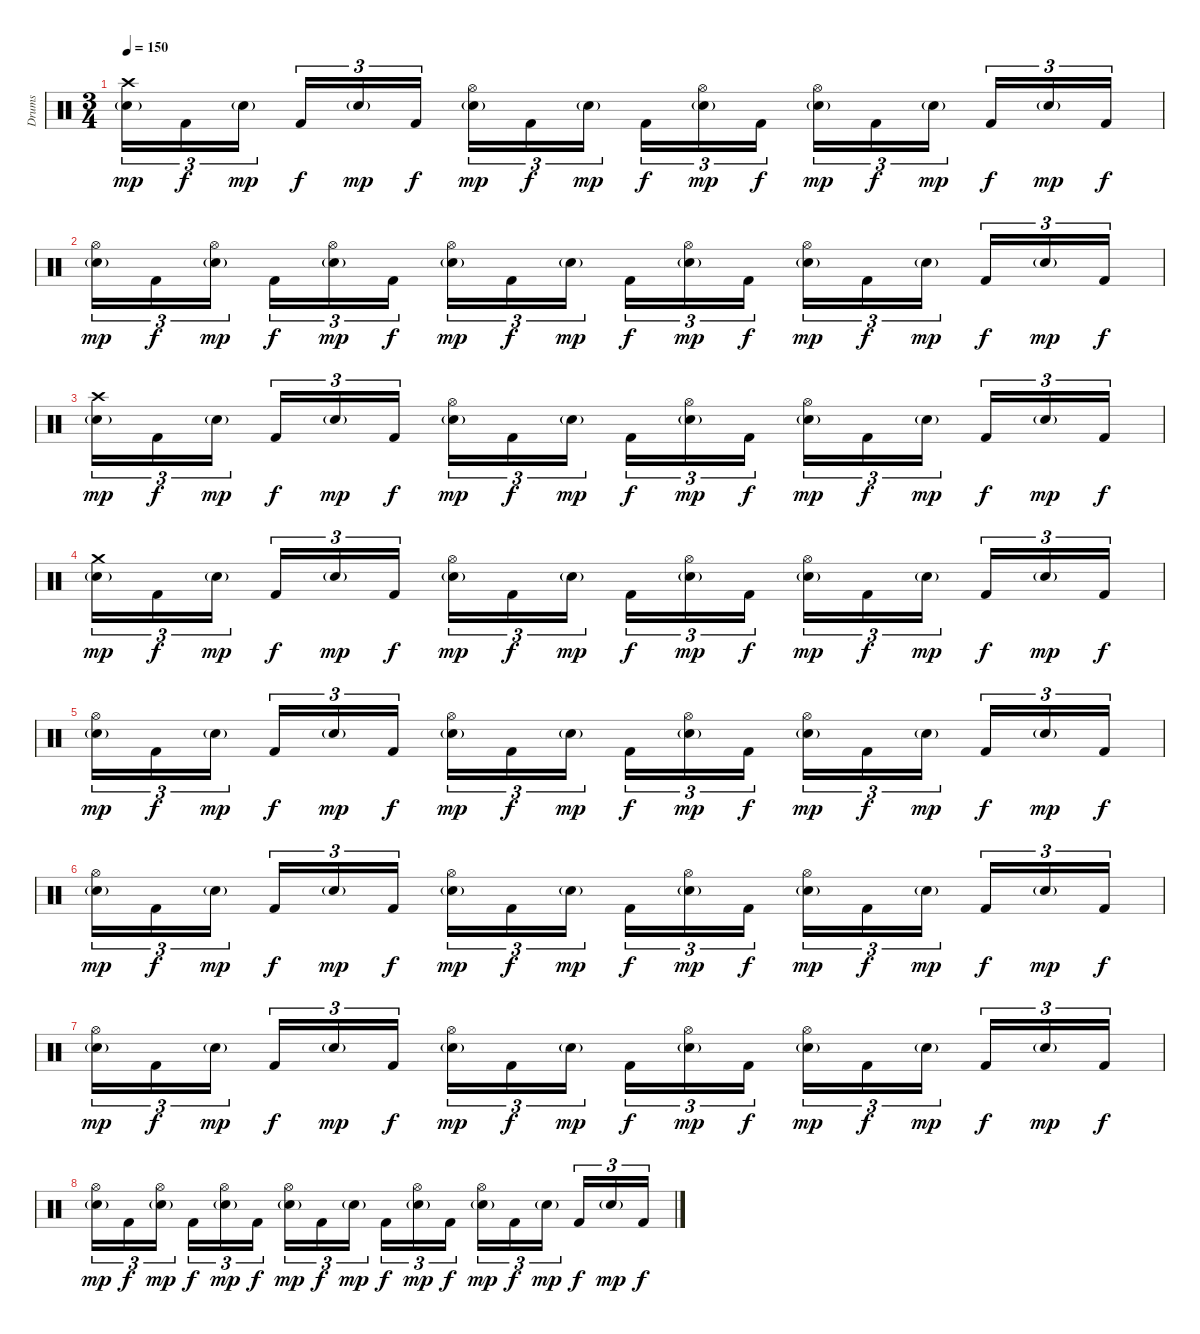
\track ("Drums" "Drums") {instrument percussion}
\staff {score}
\articulation defaults
\ts (3 4)
\tempo 150
\clef neutral
\ks c
("Electric Snare (hit)"{g} "Crash high (hit)").16{tu (3 2) dy mp} "Kick (hit) 2".16{tu (3 2) dy f} "Electric Snare (hit)"{g}.16{tu (3 2) dy mp beam splitsecondary} "Kick (hit) 2".16{tu (3 2) dy f} "Electric Snare (hit)"{g}.16{tu (3 2) dy mp} "Kick (hit) 2".16{tu (3 2) dy f} ("Electric Snare (hit)"{g} "Hi-Hat (open)").16{tu (3 2) dy mp} "Kick (hit) 2".16{tu (3 2) dy f} "Electric Snare (hit)"{g}.16{tu (3 2) dy mp beam splitsecondary} "Kick (hit) 2".16{tu (3 2) dy f} ("Electric Snare (hit)"{g} "Hi-Hat (open)").16{tu (3 2) dy mp} "Kick (hit) 2".16{tu (3 2) dy f} ("Electric Snare (hit)"{g} "Hi-Hat (open)").16{tu (3 2) dy mp} "Kick (hit) 2".16{tu (3 2) dy f} "Electric Snare (hit)"{g}.16{tu (3 2) dy mp beam splitsecondary} "Kick (hit) 2".16{tu (3 2) dy f} "Electric Snare (hit)"{g}.16{tu (3 2) dy mp} "Kick (hit) 2".16{tu (3 2) dy f} |
("Electric Snare (hit)"{g} "Hi-Hat (open)").16{tu (3 2) dy mp} "Kick (hit) 2".16{tu (3 2) dy f} ("Electric Snare (hit)"{g} "Hi-Hat (open)").16{tu (3 2) dy mp beam splitsecondary} "Kick (hit) 2".16{tu (3 2) dy f} ("Electric Snare (hit)"{g} "Hi-Hat (open)").16{tu (3 2) dy mp} "Kick (hit) 2".16{tu (3 2) dy f} ("Electric Snare (hit)"{g} "Hi-Hat (open)").16{tu (3 2) dy mp} "Kick (hit) 2".16{tu (3 2) dy f} "Electric Snare (hit)"{g}.16{tu (3 2) dy mp beam splitsecondary} "Kick (hit) 2".16{tu (3 2) dy f} ("Electric Snare (hit)"{g} "Hi-Hat (open)").16{tu (3 2) dy mp} "Kick (hit) 2".16{tu (3 2) dy f} ("Electric Snare (hit)"{g} "Hi-Hat (open)").16{tu (3 2) dy mp} "Kick (hit) 2".16{tu (3 2) dy f} "Electric Snare (hit)"{g}.16{tu (3 2) dy mp beam splitsecondary} "Kick (hit) 2".16{tu (3 2) dy f} "Electric Snare (hit)"{g}.16{tu (3 2) dy mp} "Kick (hit) 2".16{tu (3 2) dy f} |
("Electric Snare (hit)"{g} "Crash high (hit)").16{tu (3 2) dy mp} "Kick (hit) 2".16{tu (3 2) dy f} "Electric Snare (hit)"{g}.16{tu (3 2) dy mp beam splitsecondary} "Kick (hit) 2".16{tu (3 2) dy f} "Electric Snare (hit)"{g}.16{tu (3 2) dy mp} "Kick (hit) 2".16{tu (3 2) dy f} ("Electric Snare (hit)"{g} "Hi-Hat (open)").16{tu (3 2) dy mp} "Kick (hit) 2".16{tu (3 2) dy f} "Electric Snare (hit)"{g}.16{tu (3 2) dy mp beam splitsecondary} "Kick (hit) 2".16{tu (3 2) dy f} ("Electric Snare (hit)"{g} "Hi-Hat (open)").16{tu (3 2) dy mp} "Kick (hit) 2".16{tu (3 2) dy f} ("Electric Snare (hit)"{g} "Hi-Hat (open)").16{tu (3 2) dy mp} "Kick (hit) 2".16{tu (3 2) dy f} "Electric Snare (hit)"{g}.16{tu (3 2) dy mp beam splitsecondary} "Kick (hit) 2".16{tu (3 2) dy f} "Electric Snare (hit)"{g}.16{tu (3 2) dy mp} "Kick (hit) 2".16{tu (3 2) dy f} |
("Electric Snare (hit)"{g} "Crash medium (hit)").16{tu (3 2) dy mp} "Kick (hit) 2".16{tu (3 2) dy f} "Electric Snare (hit)"{g}.16{tu (3 2) dy mp beam splitsecondary} "Kick (hit) 2".16{tu (3 2) dy f} "Electric Snare (hit)"{g}.16{tu (3 2) dy mp} "Kick (hit) 2".16{tu (3 2) dy f} ("Electric Snare (hit)"{g} "Hi-Hat (open)").16{tu (3 2) dy mp} "Kick (hit) 2".16{tu (3 2) dy f} "Electric Snare (hit)"{g}.16{tu (3 2) dy mp beam splitsecondary} "Kick (hit) 2".16{tu (3 2) dy f} ("Electric Snare (hit)"{g} "Hi-Hat (open)").16{tu (3 2) dy mp} "Kick (hit) 2".16{tu (3 2) dy f} ("Electric Snare (hit)"{g} "Hi-Hat (open)").16{tu (3 2) dy mp} "Kick (hit) 2".16{tu (3 2) dy f} "Electric Snare (hit)"{g}.16{tu (3 2) dy mp beam splitsecondary} "Kick (hit) 2".16{tu (3 2) dy f} "Electric Snare (hit)"{g}.16{tu (3 2) dy mp} "Kick (hit) 2".16{tu (3 2) dy f} |
("Electric Snare (hit)"{g} "Hi-Hat (open)").16{tu (3 2) dy mp} "Kick (hit) 2".16{tu (3 2) dy f} "Electric Snare (hit)"{g}.16{tu (3 2) dy mp beam splitsecondary} "Kick (hit) 2".16{tu (3 2) dy f} "Electric Snare (hit)"{g}.16{tu (3 2) dy mp} "Kick (hit) 2".16{tu (3 2) dy f} ("Electric Snare (hit)"{g} "Hi-Hat (open)").16{tu (3 2) dy mp} "Kick (hit) 2".16{tu (3 2) dy f} "Electric Snare (hit)"{g}.16{tu (3 2) dy mp beam splitsecondary} "Kick (hit) 2".16{tu (3 2) dy f} ("Electric Snare (hit)"{g} "Hi-Hat (open)").16{tu (3 2) dy mp} "Kick (hit) 2".16{tu (3 2) dy f} ("Electric Snare (hit)"{g} "Hi-Hat (open)").16{tu (3 2) dy mp} "Kick (hit) 2".16{tu (3 2) dy f} "Electric Snare (hit)"{g}.16{tu (3 2) dy mp beam splitsecondary} "Kick (hit) 2".16{tu (3 2) dy f} "Electric Snare (hit)"{g}.16{tu (3 2) dy mp} "Kick (hit) 2".16{tu (3 2) dy f} |
("Electric Snare (hit)"{g} "Hi-Hat (open)").16{tu (3 2) dy mp} "Kick (hit) 2".16{tu (3 2) dy f} "Electric Snare (hit)"{g}.16{tu (3 2) dy mp beam splitsecondary} "Kick (hit) 2".16{tu (3 2) dy f} "Electric Snare (hit)"{g}.16{tu (3 2) dy mp} "Kick (hit) 2".16{tu (3 2) dy f} ("Electric Snare (hit)"{g} "Hi-Hat (open)").16{tu (3 2) dy mp} "Kick (hit) 2".16{tu (3 2) dy f} "Electric Snare (hit)"{g}.16{tu (3 2) dy mp beam splitsecondary} "Kick (hit) 2".16{tu (3 2) dy f} ("Electric Snare (hit)"{g} "Hi-Hat (open)").16{tu (3 2) dy mp} "Kick (hit) 2".16{tu (3 2) dy f} ("Electric Snare (hit)"{g} "Hi-Hat (open)").16{tu (3 2) dy mp} "Kick (hit) 2".16{tu (3 2) dy f} "Electric Snare (hit)"{g}.16{tu (3 2) dy mp beam splitsecondary} "Kick (hit) 2".16{tu (3 2) dy f} "Electric Snare (hit)"{g}.16{tu (3 2) dy mp} "Kick (hit) 2".16{tu (3 2) dy f} |
("Electric Snare (hit)"{g} "Hi-Hat (open)").16{tu (3 2) dy mp} "Kick (hit) 2".16{tu (3 2) dy f} "Electric Snare (hit)"{g}.16{tu (3 2) dy mp beam splitsecondary} "Kick (hit) 2".16{tu (3 2) dy f} "Electric Snare (hit)"{g}.16{tu (3 2) dy mp} "Kick (hit) 2".16{tu (3 2) dy f} ("Electric Snare (hit)"{g} "Hi-Hat (open)").16{tu (3 2) dy mp} "Kick (hit) 2".16{tu (3 2) dy f} "Electric Snare (hit)"{g}.16{tu (3 2) dy mp beam splitsecondary} "Kick (hit) 2".16{tu (3 2) dy f} ("Electric Snare (hit)"{g} "Hi-Hat (open)").16{tu (3 2) dy mp} "Kick (hit) 2".16{tu (3 2) dy f} ("Electric Snare (hit)"{g} "Hi-Hat (open)").16{tu (3 2) dy mp} "Kick (hit) 2".16{tu (3 2) dy f} "Electric Snare (hit)"{g}.16{tu (3 2) dy mp beam splitsecondary} "Kick (hit) 2".16{tu (3 2) dy f} "Electric Snare (hit)"{g}.16{tu (3 2) dy mp} "Kick (hit) 2".16{tu (3 2) dy f} |
("Electric Snare (hit)"{g} "Hi-Hat (open)").16{tu (3 2) dy mp} "Kick (hit) 2".16{tu (3 2) dy f} ("Electric Snare (hit)"{g} "Hi-Hat (open)").16{tu (3 2) dy mp beam splitsecondary} "Kick (hit) 2".16{tu (3 2) dy f} ("Electric Snare (hit)"{g} "Hi-Hat (open)").16{tu (3 2) dy mp} "Kick (hit) 2".16{tu (3 2) dy f} ("Electric Snare (hit)"{g} "Hi-Hat (open)").16{tu (3 2) dy mp} "Kick (hit) 2".16{tu (3 2) dy f} "Electric Snare (hit)"{g}.16{tu (3 2) dy mp beam splitsecondary} "Kick (hit) 2".16{tu (3 2) dy f} ("Electric Snare (hit)"{g} "Hi-Hat (open)").16{tu (3 2) dy mp} "Kick (hit) 2".16{tu (3 2) dy f} ("Electric Snare (hit)"{g} "Hi-Hat (open)").16{tu (3 2) dy mp} "Kick (hit) 2".16{tu (3 2) dy f} "Electric Snare (hit)"{g}.16{tu (3 2) dy mp beam splitsecondary} "Kick (hit) 2".16{tu (3 2) dy f} "Electric Snare (hit)"{g}.16{tu (3 2) dy mp} "Kick (hit) 2".16{tu (3 2) dy f}
